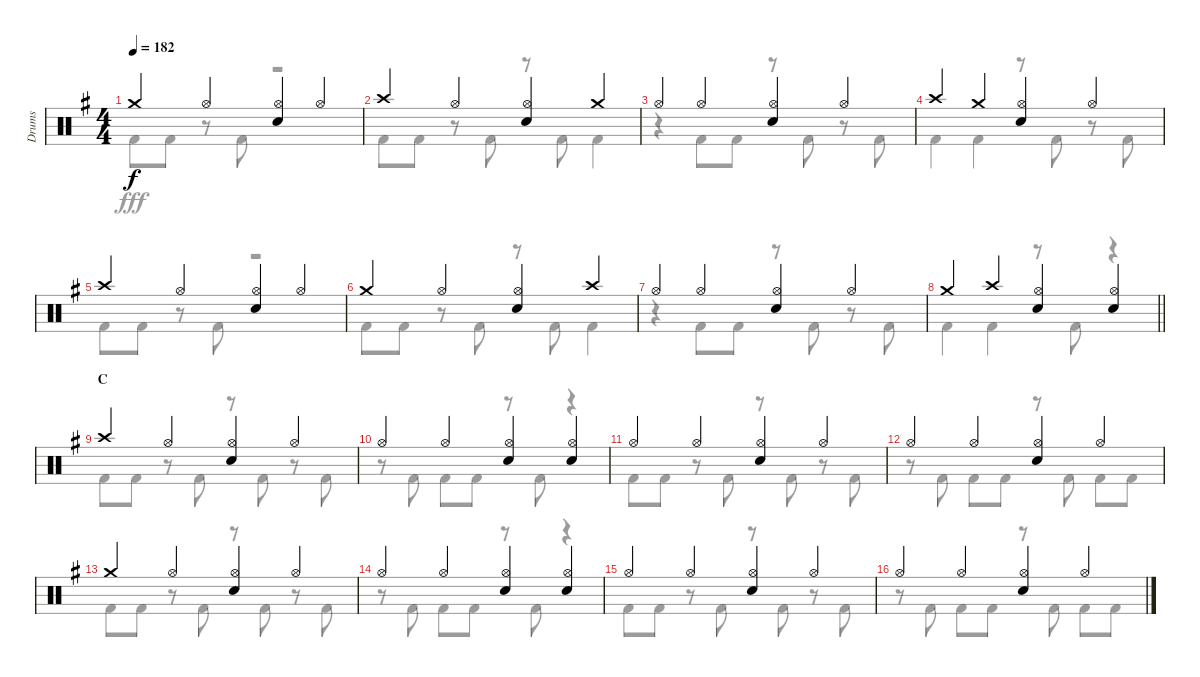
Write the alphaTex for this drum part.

\track ("Drums" "Drums") {instrument percussion}
\staff {score}
\articulation defaults
\voice
\ts (4 4)
\tempo 182
\clef neutral
\ks g "Crash medium (hit)".4{dy f} "Hi-Hat (open)".4
("Hi-Hat (open)" "Snare (hit) 2").4 "Hi-Hat (open)".4 |
"Crash high (hit)".4 "Hi-Hat (open)".4 ("Hi-Hat (open)" "Snare (hit) 2").4 "Crash medium (hit)".4 |
"Hi-Hat (open)".4 "Hi-Hat (open)".4 ("Hi-Hat (open)" "Snare (hit) 2").4 "Hi-Hat (open)".4 |
"Crash high (hit)".4 "Crash medium (hit)".4 ("Hi-Hat (open)" "Snare (hit) 2").4 "Hi-Hat (open)".4 |
"Crash high (hit)".4 "Hi-Hat (open)".4 ("Hi-Hat (open)" "Snare (hit) 2").4 "Hi-Hat (open)".4 |
"Crash medium (hit)".4 "Hi-Hat (open)".4 ("Hi-Hat (open)" "Snare (hit) 2").4 "Crash high (hit)".4 |
"Hi-Hat (open)".4 "Hi-Hat (open)".4 ("Hi-Hat (open)" "Snare (hit) 2").4 "Hi-Hat (open)".4 |
\barLineRight lightlight "Crash medium (hit)".4 "Crash high (hit)".4
("Hi-Hat (open)" "Snare (hit) 2").4 ("Hi-Hat (open)" "Snare (hit) 2").4 |
\section ("" "C")
"Crash high (hit)".4 "Hi-Hat (open)".4 ("Hi-Hat (open)" "Snare (hit) 2").4 "Hi-Hat (open)".4 |
"Hi-Hat (open)".4 "Hi-Hat (open)".4 ("Hi-Hat (open)" "Snare (hit) 2").4 ("Hi-Hat (open)" "Snare (hit) 2").4 |
"Hi-Hat (open)".4 "Hi-Hat (open)".4 ("Hi-Hat (open)" "Snare (hit) 2").4 "Hi-Hat (open)".4 |
"Hi-Hat (open)".4 "Hi-Hat (open)".4 ("Hi-Hat (open)" "Snare (hit) 2").4 "Hi-Hat (open)".4 |
"Crash medium (hit)".4 "Hi-Hat (open)".4 ("Hi-Hat (open)" "Snare (hit) 2").4 "Hi-Hat (open)".4 |
"Hi-Hat (open)".4 "Hi-Hat (open)".4 ("Hi-Hat (open)" "Snare (hit) 2").4 ("Hi-Hat (open)" "Snare (hit) 2").4 |
"Hi-Hat (open)".4 "Hi-Hat (open)".4 ("Hi-Hat (open)" "Snare (hit) 2").4 "Hi-Hat (open)".4 |
"Hi-Hat (open)".4 "Hi-Hat (open)".4 ("Hi-Hat (open)" "Snare (hit) 2").4 "Hi-Hat (open)".4
\voice
\clef neutral
\ottava regular
\simile none
\ks g "Kick (hit) 2".8{dy fff} "Kick (hit) 2".8
r.8 "Kick (hit) 2".8 r.2 |
"Kick (hit) 2".8 "Kick (hit) 2".8 r.8 "Kick (hit) 2".8 r.8 "Kick (hit) 2".8 "Kick (hit) 2".4 |
r.4 "Kick (hit) 2".8 "Kick (hit) 2".8 r.8 "Kick (hit) 2".8 r.8 "Kick (hit) 2".8 |
"Kick (hit) 2".4 "Kick (hit) 2".4 r.8 "Kick (hit) 2".8 r.8 "Kick (hit) 2".8 |
"Kick (hit) 2".8 "Kick (hit) 2".8 r.8 "Kick (hit) 2".8 r.2 |
"Kick (hit) 2".8 "Kick (hit) 2".8 r.8 "Kick (hit) 2".8 r.8 "Kick (hit) 2".8 "Kick (hit) 2".4 |
r.4 "Kick (hit) 2".8 "Kick (hit) 2".8 r.8 "Kick (hit) 2".8 r.8 "Kick (hit) 2".8 |
\barLineRight lightlight "Kick (hit) 2".4 "Kick (hit) 2".4
r.8 "Kick (hit) 2".8 r.4 |
"Kick (hit) 2".8 "Kick (hit) 2".8 r.8 "Kick (hit) 2".8 r.8 "Kick (hit) 2".8 r.8 "Kick (hit) 2".8 |
r.8 "Kick (hit) 2".8 "Kick (hit) 2".8 "Kick (hit) 2".8 r.8 "Kick (hit) 2".8 r.4 |
"Kick (hit) 2".8 "Kick (hit) 2".8 r.8 "Kick (hit) 2".8 r.8 "Kick (hit) 2".8 r.8 "Kick (hit) 2".8 |
r.8 "Kick (hit) 2".8 "Kick (hit) 2".8 "Kick (hit) 2".8 r.8 "Kick (hit) 2".8 "Kick (hit) 2".8 "Kick (hit) 2".8 |
"Kick (hit) 2".8 "Kick (hit) 2".8 r.8 "Kick (hit) 2".8 r.8 "Kick (hit) 2".8 r.8 "Kick (hit) 2".8 |
r.8 "Kick (hit) 2".8 "Kick (hit) 2".8 "Kick (hit) 2".8 r.8 "Kick (hit) 2".8 r.4 |
"Kick (hit) 2".8 "Kick (hit) 2".8 r.8 "Kick (hit) 2".8 r.8 "Kick (hit) 2".8 r.8 "Kick (hit) 2".8 |
r.8 "Kick (hit) 2".8 "Kick (hit) 2".8 "Kick (hit) 2".8 r.8 "Kick (hit) 2".8 "Kick (hit) 2".8 "Kick (hit) 2".8
